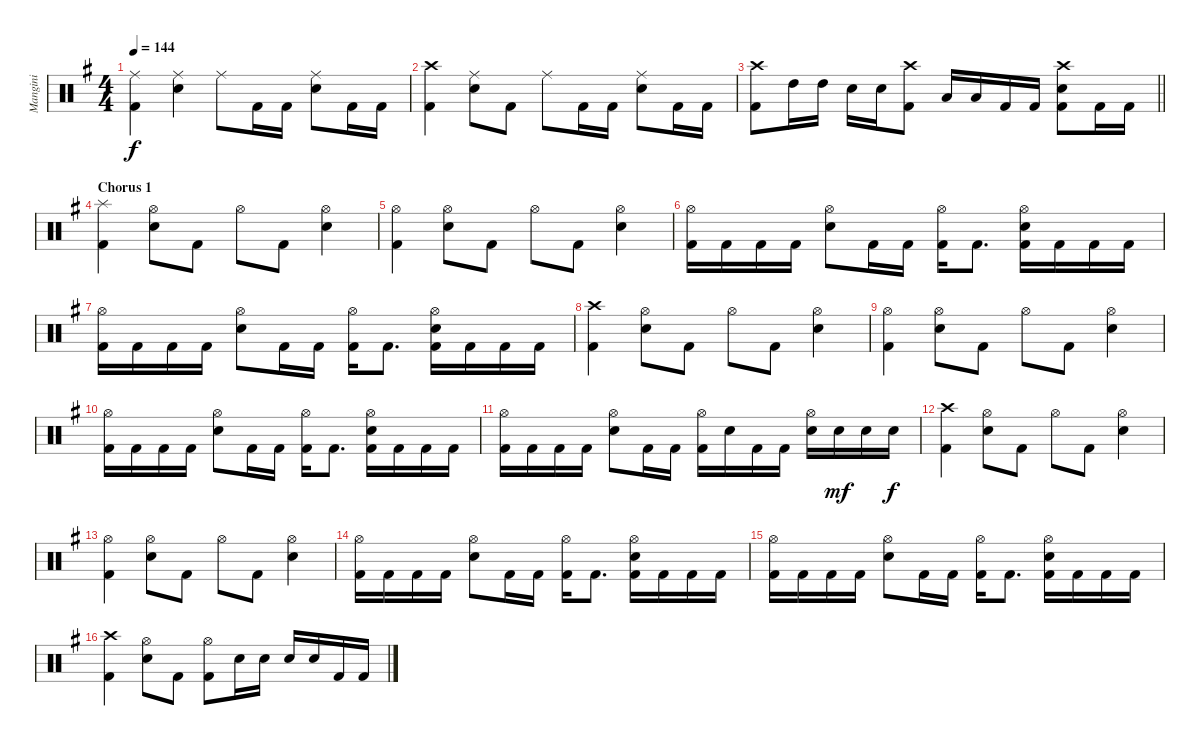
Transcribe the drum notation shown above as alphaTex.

\track ("Mangini" "Mangini") {instrument percussion}
\staff {score}
\articulation defaults
\ts (4 4)
\tempo 144
\clef neutral
\ks eminor
("Ride (middle)" "Kick (hit) 2").4{dy f} ("Ride (middle)" "Snare (hit) 2").4 "Ride (middle)".8 "Kick (hit) 2".16 "Kick (hit) 2".16 ("Ride (middle)" "Snare (hit) 2").8 "Kick (hit) 2".16 "Kick (hit) 2".16 |
("Crash high (hit)" "Kick (hit) 2").4 ("Ride (middle)" "Snare (hit) 2").8 "Kick (hit) 2".8 "Ride (middle)".8 "Kick (hit) 2".16 "Kick (hit) 2".16 ("Ride (middle)" "Snare (hit) 2").8 "Kick (hit) 2".16 "Kick (hit) 2".16 |
\barLineRight lightlight
("Crash high (hit)" "Kick (hit) 2").8 "High Tom (hit)".16 "High Tom (hit)".16 "Snare (hit) 2".16 "Snare (hit) 2".16 ("Crash high (hit)" "Kick (hit) 2").8 "Low Tom (hit)".16 "Low Tom (hit)".16 "Kick (hit) 2".16 "Kick (hit) 2".16 ("Crash high (hit)" "Snare (hit) 2" "Kick (hit) 2").8 "Kick (hit) 2".16 "Kick (hit) 2".16 |
\section ("" "Chorus 1")
("Splash (hit)" "Kick (hit) 2").4 ("Hi-Hat (open)" "Snare (hit) 2").8 "Kick (hit) 2".8 "Hi-Hat (open)".8 "Kick (hit) 2".8 ("Hi-Hat (open)" "Snare (hit) 2").4 |
("Hi-Hat (open)" "Kick (hit) 2").4 ("Hi-Hat (open)" "Snare (hit) 2").8 "Kick (hit) 2".8 "Hi-Hat (open)".8 "Kick (hit) 2".8 ("Hi-Hat (open)" "Snare (hit) 2").4 |
("Hi-Hat (open)" "Kick (hit) 2").16 "Kick (hit) 2".16 "Kick (hit) 2".16 "Kick (hit) 2".16 ("Hi-Hat (open)" "Snare (hit) 2").8 "Kick (hit) 2".16 "Kick (hit) 2".16 ("Hi-Hat (open)" "Kick (hit) 2").16 "Kick (hit) 2".8{d} ("Hi-Hat (open)" "Snare (hit) 2" "Kick (hit) 2").16 "Kick (hit) 2".16 "Kick (hit) 2".16 "Kick (hit) 2".16 |
("Hi-Hat (open)" "Kick (hit) 2").16 "Kick (hit) 2".16 "Kick (hit) 2".16 "Kick (hit) 2".16 ("Hi-Hat (open)" "Snare (hit) 2").8 "Kick (hit) 2".16 "Kick (hit) 2".16 ("Hi-Hat (open)" "Kick (hit) 2").16 "Kick (hit) 2".8{d} ("Hi-Hat (open)" "Snare (hit) 2" "Kick (hit) 2").16 "Kick (hit) 2".16 "Kick (hit) 2".16 "Kick (hit) 2".16 |
("Crash high (hit)" "Kick (hit) 2").4 ("Hi-Hat (open)" "Snare (hit) 2").8 "Kick (hit) 2".8 "Hi-Hat (open)".8 "Kick (hit) 2".8 ("Hi-Hat (open)" "Snare (hit) 2").4 |
("Hi-Hat (open)" "Kick (hit) 2").4 ("Hi-Hat (open)" "Snare (hit) 2").8 "Kick (hit) 2".8 "Hi-Hat (open)".8 "Kick (hit) 2".8 ("Hi-Hat (open)" "Snare (hit) 2").4 |
("Hi-Hat (open)" "Kick (hit) 2").16 "Kick (hit) 2".16 "Kick (hit) 2".16 "Kick (hit) 2".16 ("Hi-Hat (open)" "Snare (hit) 2").8 "Kick (hit) 2".16 "Kick (hit) 2".16 ("Hi-Hat (open)" "Kick (hit) 2").16 "Kick (hit) 2".8{d} ("Hi-Hat (open)" "Snare (hit) 2" "Kick (hit) 2").16 "Kick (hit) 2".16 "Kick (hit) 2".16 "Kick (hit) 2".16 |
("Hi-Hat (open)" "Kick (hit) 2").16 "Kick (hit) 2".16 "Kick (hit) 2".16 "Kick (hit) 2".16 ("Hi-Hat (open)" "Snare (hit) 2").8 "Kick (hit) 2".16 "Kick (hit) 2".16 ("Hi-Hat (open)" "Kick (hit) 2").16 "Snare (hit) 2".16 "Kick (hit) 2".16 "Kick (hit) 2".16 ("Hi-Hat (open)" "Snare (hit) 2").16 "Snare (hit) 2".16{dy mf} "Snare (hit) 2".16 "Snare (hit) 2".16{dy f} |
("Crash high (hit)" "Kick (hit) 2").4 ("Hi-Hat (open)" "Snare (hit) 2").8 "Kick (hit) 2".8 "Hi-Hat (open)".8 "Kick (hit) 2".8 ("Hi-Hat (open)" "Snare (hit) 2").4 |
("Hi-Hat (open)" "Kick (hit) 2").4 ("Hi-Hat (open)" "Snare (hit) 2").8 "Kick (hit) 2".8 "Hi-Hat (open)".8 "Kick (hit) 2".8 ("Hi-Hat (open)" "Snare (hit) 2").4 |
("Hi-Hat (open)" "Kick (hit) 2").16 "Kick (hit) 2".16 "Kick (hit) 2".16 "Kick (hit) 2".16 ("Hi-Hat (open)" "Snare (hit) 2").8 "Kick (hit) 2".16 "Kick (hit) 2".16 ("Hi-Hat (open)" "Kick (hit) 2").16 "Kick (hit) 2".8{d} ("Hi-Hat (open)" "Snare (hit) 2" "Kick (hit) 2").16 "Kick (hit) 2".16 "Kick (hit) 2".16 "Kick (hit) 2".16 |
("Hi-Hat (open)" "Kick (hit) 2").16 "Kick (hit) 2".16 "Kick (hit) 2".16 "Kick (hit) 2".16 ("Hi-Hat (open)" "Snare (hit) 2").8 "Kick (hit) 2".16 "Kick (hit) 2".16 ("Hi-Hat (open)" "Kick (hit) 2").16 "Kick (hit) 2".8{d} ("Hi-Hat (open)" "Snare (hit) 2" "Kick (hit) 2").16 "Kick (hit) 2".16 "Kick (hit) 2".16 "Kick (hit) 2".16 |
("Crash high (hit)" "Kick (hit) 2").4 ("Hi-Hat (open)" "Snare (hit) 2").8 "Kick (hit) 2".8 ("Hi-Hat (open)" "Kick (hit) 2").8 "Snare (hit) 2".16 "Snare (hit) 2".16 "Snare (hit) 2".16 "Snare (hit) 2".16 "Kick (hit) 2".16 "Kick (hit) 2".16
